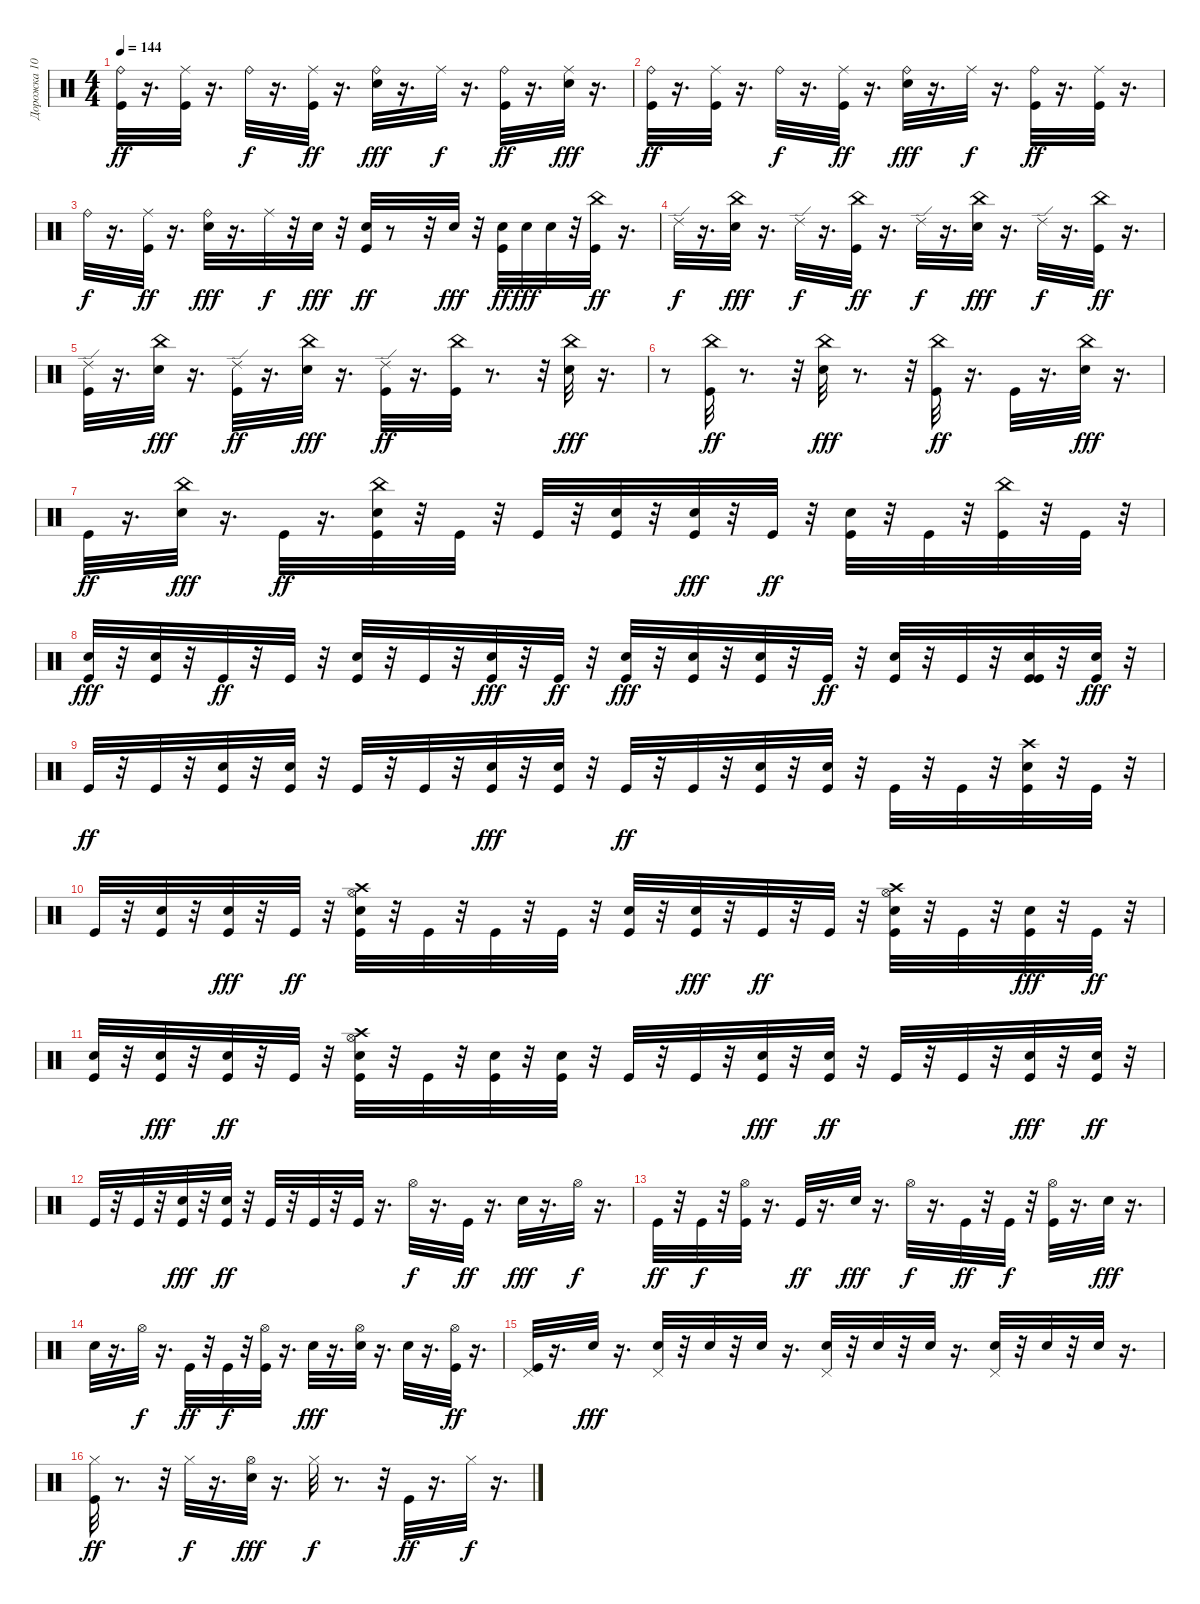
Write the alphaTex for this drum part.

\track ("Дорожка 10" "Дорожка 10") {instrument percussion}
\staff {score}
\articulation defaults
\ts (4 4)
\tempo 144
\clef neutral
\ks c
("Kick (hit)" "Ride (bell)").32{dy ff} r.16{d} ("Kick (hit)" "Ride (middle)").32 r.16{d} "Ride (bell)".32{dy f} r.16{d} ("Ride (middle)" "Kick (hit)").32{dy ff} r.16{d} ("Ride (bell)" "Electric Snare (hit)").32{dy fff} r.16{d} "Ride (middle)".32{dy f} r.16{d} ("Kick (hit)" "Ride (bell)").32{dy ff} r.16{d} ("Ride (middle)" "Electric Snare (hit)").32{dy fff} r.16{d} |
("Ride (bell)" "Kick (hit)").32{dy ff} r.16{d} ("Kick (hit)" "Ride (middle)").32 r.16{d} "Ride (bell)".32{dy f} r.16{d} ("Ride (middle)" "Kick (hit)").32{dy ff} r.16{d} ("Electric Snare (hit)" "Ride (bell)").32{dy fff} r.16{d} "Ride (middle)".32{dy f} r.16{d} ("Kick (hit)" "Ride (bell)").32{dy ff} r.16{d} ("Kick (hit)" "Ride (middle)").32 r.16{d} |
"Ride (bell)".32{dy f} r.16{d} ("Ride (middle)" "Kick (hit)").32{dy ff} r.16{d} ("Electric Snare (hit)" "Ride (bell)").32{dy fff} r.16{d} "Ride (middle)".32{dy f} r.32 "Electric Snare (hit)".32{dy fff} r.32 ("Electric Snare (hit)" "Kick (hit)").32{dy ff} r.8 r.32 "Electric Snare (hit)".32{dy fff} r.32 ("Electric Snare (hit)" "Kick (hit)").32{dy ff} "Electric Snare (hit)".32{dy fff} "Electric Snare (hit)".32 r.32 ("Kick (hit)" "China (hit)").32{dy ff} r.16{d} |
"Ride (edge) 2".32{dy f} r.16{d} ("China (hit)" "Electric Snare (hit)").32{dy fff} r.16{d} "Ride (edge) 2".32{dy f} r.16{d} ("China (hit)" "Kick (hit)").32{dy ff} r.16{d} "Ride (edge) 2".32{dy f} r.16{d} ("China (hit)" "Electric Snare (hit)").32{dy fff} r.16{d} "Ride (edge) 2".32{dy f} r.16{d} ("Kick (hit)" "China (hit)").32{dy ff} r.16{d} |
("Ride (edge) 2" "Kick (hit)").32 r.16{d} ("China (hit)" "Electric Snare (hit)").32{dy fff} r.16{d} ("Kick (hit)" "Ride (edge) 2").32{dy ff} r.16{d} ("China (hit)" "Electric Snare (hit)").32{dy fff} r.16{d} ("Ride (edge) 2" "Kick (hit)").32{dy ff} r.16{d} ("Kick (hit)" "China (hit)").32 r.8{d} r.32 ("Electric Snare (hit)" "China (hit)").32{dy fff} r.16{d} |
r.8 ("China (hit)" "Kick (hit)").32{dy ff} r.8{d} r.32 ("China (hit)" "Electric Snare (hit)").32{dy fff} r.8{d} r.32 ("Kick (hit)" "China (hit)").32{dy ff} r.16{d} "Kick (hit)".32 r.16{d} ("China (hit)" "Electric Snare (hit)").32{dy fff} r.16{d} |
"Kick (hit)".32{dy ff} r.16{d} ("Electric Snare (hit)" "China (hit)").32{dy fff} r.16{d} "Kick (hit)".32{dy ff} r.16{d} ("Electric Snare (hit)" "Kick (hit)" "China (hit)").32 r.32 "Kick (hit)".32 r.32 "Kick (hit)".32 r.32 ("Electric Snare (hit)" "Kick (hit)").32 r.32 ("Kick (hit)" "Electric Snare (hit)").32{dy fff} r.32 "Kick (hit)".32{dy ff} r.32 ("Electric Snare (hit)" "Kick (hit)").32 r.32 "Kick (hit)".32 r.32 ("Kick (hit)" "China (hit)").32 r.32 "Kick (hit)".32 r.32 |
("Kick (hit)" "Electric Snare (hit)").32{dy fff} r.32 ("Kick (hit)" "Electric Snare (hit)").32 r.32 "Kick (hit)".32{dy ff} r.32 "Kick (hit)".32 r.32 ("Electric Snare (hit)" "Kick (hit)").32 r.32 "Kick (hit)".32 r.32 ("Kick (hit)" "Electric Snare (hit)").32{dy fff} r.32 "Kick (hit)".32{dy ff} r.32 ("Kick (hit)" "Electric Snare (hit)").32{dy fff} r.32 ("Kick (hit)" "Electric Snare (hit)").32 r.32 ("Kick (hit)" "Electric Snare (hit)").32 r.32 "Kick (hit)".32{dy ff} r.32 ("Kick (hit)" "Electric Snare (hit)").32 r.32 "Kick (hit)".32 r.32 ("Kick (hit)" "Electric Snare (hit)" "Kick (hit)").32 r.32 ("Kick (hit)" "Electric Snare (hit)").32{dy fff} r.32 |
"Kick (hit)".32{dy ff} r.32 "Kick (hit)".32 r.32 ("Electric Snare (hit)" "Kick (hit)").32 r.32 ("Electric Snare (hit)" "Kick (hit)").32 r.32 "Kick (hit)".32 r.32 "Kick (hit)".32 r.32 ("Kick (hit)" "Electric Snare (hit)").32{dy fff} r.32 ("Kick (hit)" "Electric Snare (hit)").32 r.32 "Kick (hit)".32{dy ff} r.32 "Kick (hit)".32 r.32 ("Electric Snare (hit)" "Kick (hit)").32 r.32 ("Electric Snare (hit)" "Kick (hit)").32 r.32 "Kick (hit)".32 r.32 "Kick (hit)".32 r.32 ("Crash high (hit)" "Electric Snare (hit)" "Kick (hit)").32 r.32 "Kick (hit)".32 r.32 |
"Kick (hit)".32 r.32 ("Electric Snare (hit)" "Kick (hit)").32 r.32 ("Kick (hit)" "Electric Snare (hit)").32{dy fff} r.32 "Kick (hit)".32{dy ff} r.32 ("Electric Snare (hit)" "Hi-Hat (open)" "Crash high (hit)" "Kick (hit)").32 r.32 "Kick (hit)".32 r.32 "Kick (hit)".32 r.32 "Kick (hit)".32 r.32 ("Electric Snare (hit)" "Kick (hit)").32 r.32 ("Kick (hit)" "Electric Snare (hit)").32{dy fff} r.32 "Kick (hit)".32{dy ff} r.32 "Kick (hit)".32 r.32 ("Electric Snare (hit)" "Hi-Hat (open)" "Crash high (hit)" "Kick (hit)").32 r.32 "Kick (hit)".32 r.32 ("Kick (hit)" "Electric Snare (hit)").32{dy fff} r.32 "Kick (hit)".32{dy ff} r.32 |
("Electric Snare (hit)" "Kick (hit)").32 r.32 ("Kick (hit)" "Electric Snare (hit)").32{dy fff} r.32 ("Electric Snare (hit)" "Kick (hit)").32{dy ff} r.32 "Kick (hit)".32 r.32 ("Hi-Hat (open)" "Crash high (hit)" "Electric Snare (hit)" "Kick (hit)").32 r.32 "Kick (hit)".32 r.32 ("Electric Snare (hit)" "Kick (hit)").32 r.32 ("Electric Snare (hit)" "Kick (hit)").32 r.32 "Kick (hit)".32 r.32 "Kick (hit)".32 r.32 ("Kick (hit)" "Electric Snare (hit)").32{dy fff} r.32 ("Electric Snare (hit)" "Kick (hit)").32{dy ff} r.32 "Kick (hit)".32 r.32 "Kick (hit)".32 r.32 ("Kick (hit)" "Electric Snare (hit)").32{dy fff} r.32 ("Electric Snare (hit)" "Kick (hit)").32{dy ff} r.32 |
"Kick (hit)".32 r.32 "Kick (hit)".32 r.32 ("Kick (hit)" "Electric Snare (hit)").32{dy fff} r.32 ("Electric Snare (hit)" "Kick (hit)").32{dy ff} r.32 "Kick (hit)".32 r.32 "Kick (hit)".32 r.32 "Kick (hit)".32 r.16{d} "Hi-Hat (open)".32{dy f} r.16{d} "Kick (hit)".32{dy ff} r.16{d} "Electric Snare (hit)".32{dy fff} r.16{d} "Hi-Hat (open)".32{dy f} r.16{d} |
"Kick (hit)".32{dy ff} r.32 "Kick (hit)".32{dy f} r.32 ("Kick (hit)" "Hi-Hat (open)").32 r.16{d} "Kick (hit)".32{dy ff} r.16{d} "Electric Snare (hit)".32{dy fff} r.16{d} "Hi-Hat (open)".32{dy f} r.16{d} "Kick (hit)".32{dy ff} r.32 "Kick (hit)".32{dy f} r.32 ("Kick (hit)" "Hi-Hat (open)").32 r.16{d} "Electric Snare (hit)".32{dy fff} r.16{d} |
"Electric Snare (hit)".32 r.16{d} "Hi-Hat (open)".32{dy f} r.16{d} "Kick (hit)".32{dy ff} r.32 "Kick (hit)".32{dy f} r.32 ("Kick (hit)" "Hi-Hat (open)").32 r.16{d} "Electric Snare (hit)".32{dy fff} r.16{d} ("Electric Snare (hit)" "Hi-Hat (open)").32 r.16{d} "Electric Snare (hit)".32 r.16{d} ("Kick (hit)" "Hi-Hat (open)").32{dy ff} r.16{d} |
("Kick (hit)" "Pedal Hi-Hat (hit)").32 r.16{d} "Electric Snare (hit)".32{dy fff} r.16{d} ("Pedal Hi-Hat (hit)" "Electric Snare (hit)").32 r.32 "Electric Snare (hit)".32 r.32 "Electric Snare (hit)".32 r.16{d} ("Pedal Hi-Hat (hit)" "Electric Snare (hit)").32 r.32 "Electric Snare (hit)".32 r.32 "Electric Snare (hit)".32 r.16{d} ("Electric Snare (hit)" "Pedal Hi-Hat (hit)").32 r.32 "Electric Snare (hit)".32 r.32 "Electric Snare (hit)".32 r.16{d} |
("Hi-Hat (closed)" "Kick (hit)").32{dy ff} r.8{d} r.32 "Hi-Hat (closed)".32{dy f} r.16{d} ("Electric Snare (hit)" "Hi-Hat (open)").32{dy fff} r.16{d} "Hi-Hat (closed)".32{dy f} r.8{d} r.32 "Kick (hit)".32{dy ff} r.16{d} "Hi-Hat (closed)".32{dy f} r.16{d}
